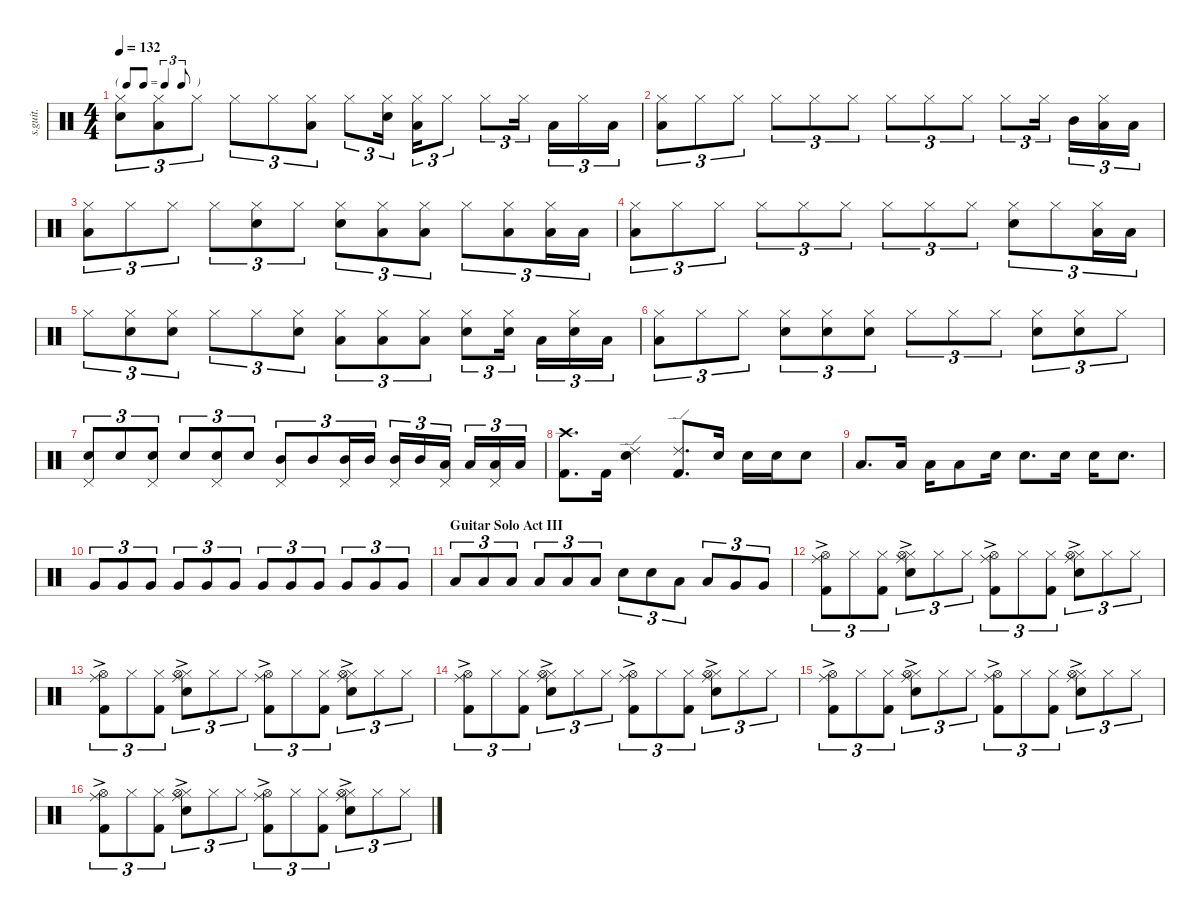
\defaultSystemsLayout 4
\hideDynamics
\bracketExtendMode nobrackets
\track ("Nick Mason | Ludwig Drumkit | Drums" "s.guit.") {instrument percussion}
\staff {score}
\articulation defaults
\ts (4 4)
\tf triplet8th
\tempo 132
\clef neutral
\ks c
("Hi-Hat (closed)" "Snare (hit) 2").8{tu (3 2) dy f} ("Hi-Hat (closed)" "Low Floor Tom (hit)").8{tu (3 2)} "Hi-Hat (closed)".8{tu (3 2)} "Hi-Hat (closed)".8{tu (3 2)} "Hi-Hat (closed)".8{tu (3 2)} ("Hi-Hat (closed)" "Low Floor Tom (hit)").8{tu (3 2)} "Hi-Hat (closed)".8{tu (3 2)} ("Hi-Hat (closed)" "Snare (hit) 2").16{tu (3 2)} ("Hi-Hat (closed)" "Low Floor Tom (hit)").16{tu (3 2)} "Hi-Hat (closed)".8{tu (3 2)} "Hi-Hat (closed)".8{tu (3 2)} "Hi-Hat (closed)".16{tu (3 2)} "Low Floor Tom (hit)".16{tu (3 2)} "Hi-Hat (closed)".16{tu (3 2)} "Low Floor Tom (hit)".16{tu (3 2)} |
("Hi-Hat (closed)" "Low Floor Tom (hit)").8{tu (3 2)} "Hi-Hat (closed)".8{tu (3 2)} "Hi-Hat (closed)".8{tu (3 2)} "Hi-Hat (closed)".8{tu (3 2)} "Hi-Hat (closed)".8{tu (3 2)} "Hi-Hat (closed)".8{tu (3 2)} "Hi-Hat (closed)".8{tu (3 2)} "Hi-Hat (closed)".8{tu (3 2)} "Hi-Hat (closed)".8{tu (3 2)} "Hi-Hat (closed)".8{tu (3 2)} "Hi-Hat (closed)".16{tu (3 2)} "Mid Tom (hit)".16{tu (3 2)} ("Hi-Hat (closed)" "Low Floor Tom (hit)").16{tu (3 2)} "Low Floor Tom (hit)".16{tu (3 2)} |
("Hi-Hat (closed)" "Low Floor Tom (hit)").8{tu (3 2)} "Hi-Hat (closed)".8{tu (3 2)} "Hi-Hat (closed)".8{tu (3 2)} "Hi-Hat (closed)".8{tu (3 2)} ("Hi-Hat (closed)" "Snare (hit) 2").8{tu (3 2)} "Hi-Hat (closed)".8{tu (3 2)} ("Hi-Hat (closed)" "Snare (hit) 2").8{tu (3 2)} ("Hi-Hat (closed)" "Low Floor Tom (hit)").8{tu (3 2)} ("Hi-Hat (closed)" "Low Floor Tom (hit)").8{tu (3 2)} "Hi-Hat (closed)".8{tu (3 2)} ("Hi-Hat (closed)" "Low Floor Tom (hit)").8{tu (3 2)} ("Hi-Hat (closed)" "Low Floor Tom (hit)").16{tu (3 2)} "Low Floor Tom (hit)".16{tu (3 2)} |
("Hi-Hat (closed)" "Low Floor Tom (hit)").8{tu (3 2)} "Hi-Hat (closed)".8{tu (3 2)} "Hi-Hat (closed)".8{tu (3 2)} "Hi-Hat (closed)".8{tu (3 2)} "Hi-Hat (closed)".8{tu (3 2)} "Hi-Hat (closed)".8{tu (3 2)} "Hi-Hat (closed)".8{tu (3 2)} "Hi-Hat (closed)".8{tu (3 2)} "Hi-Hat (closed)".8{tu (3 2)} ("Hi-Hat (closed)" "Snare (hit) 2").8{tu (3 2)} "Hi-Hat (closed)".8{tu (3 2)} ("Hi-Hat (closed)" "Low Floor Tom (hit)").16{tu (3 2)} "Low Floor Tom (hit)".16{tu (3 2)} |
"Hi-Hat (closed)".8{tu (3 2)} ("Hi-Hat (closed)" "Snare (hit) 2").8{tu (3 2)} ("Hi-Hat (closed)" "Snare (hit) 2").8{tu (3 2)} "Hi-Hat (closed)".8{tu (3 2)} "Hi-Hat (closed)".8{tu (3 2)} ("Hi-Hat (closed)" "Snare (hit) 2").8{tu (3 2)} ("Hi-Hat (closed)" "Low Floor Tom (hit)").8{tu (3 2)} ("Hi-Hat (closed)" "Low Floor Tom (hit)").8{tu (3 2)} ("Hi-Hat (closed)" "Low Floor Tom (hit)").8{tu (3 2)} ("Hi-Hat (closed)" "Snare (hit) 2").8{tu (3 2)} ("Hi-Hat (closed)" "Snare (hit) 2").16{tu (3 2)} "Low Floor Tom (hit)".16{tu (3 2)} ("Hi-Hat (closed)" "Snare (hit) 2").16{tu (3 2)} "Low Floor Tom (hit)".16{tu (3 2)} |
("Hi-Hat (closed)" "Low Floor Tom (hit)").8{tu (3 2)} "Hi-Hat (closed)".8{tu (3 2)} "Hi-Hat (closed)".8{tu (3 2)} ("Hi-Hat (closed)" "Snare (hit) 2").8{tu (3 2)} ("Hi-Hat (closed)" "Snare (hit) 2").8{tu (3 2)} ("Hi-Hat (closed)" "Snare (hit) 2").8{tu (3 2)} "Hi-Hat (closed)".8{tu (3 2)} "Hi-Hat (closed)".8{tu (3 2)} "Hi-Hat (closed)".8{tu (3 2)} ("Hi-Hat (closed)" "Snare (hit) 2").8{tu (3 2)} ("Hi-Hat (closed)" "Snare (hit) 2").8{tu (3 2)} "Hi-Hat (closed)".8{tu (3 2)} |
("Snare (hit) 2" "Pedal Hi-Hat (hit)").8{tu (3 2)} "Snare (hit) 2".8{tu (3 2)} ("Snare (hit) 2" "Pedal Hi-Hat (hit)").8{tu (3 2)} "Snare (hit) 2".8{tu (3 2)} ("Snare (hit) 2" "Pedal Hi-Hat (hit)").8{tu (3 2)} "Snare (hit) 2".8{tu (3 2)} ("Mid Tom (hit)" "Pedal Hi-Hat (hit)").8{tu (3 2)} "Mid Tom (hit)".8{tu (3 2)} ("Mid Tom (hit)" "Pedal Hi-Hat (hit)").16{tu (3 2)} "Mid Tom (hit)".16{tu (3 2)} ("Mid Tom (hit)" "Pedal Hi-Hat (hit)").16{tu (3 2)} "Mid Tom (hit)".16{tu (3 2)} ("Low Floor Tom (hit)" "Pedal Hi-Hat (hit)").16{tu (3 2)} "Low Floor Tom (hit)".16{tu (3 2)} ("Low Floor Tom (hit)" "Pedal Hi-Hat (hit)").16{tu (3 2)} "Low Floor Tom (hit)".16{tu (3 2)} |
("Crash high (hit)" "Kick (hit) 2").8{d} "Kick (hit) 2".16 ("Ride (edge) 2" "Snare (hit) 2").4 ("Ride (edge) 2" "Kick (hit) 2").8{d} "Snare (hit) 2".16 "Snare (hit) 2".16 "Snare (hit) 2".16 "Snare (hit) 2".8 |
"Low Floor Tom (hit)".8{d} "Low Floor Tom (hit)".16 "Low Floor Tom (hit)".16 "Low Floor Tom (hit)".8 "Snare (hit) 2".16 "Snare (hit) 2".8{d} "Snare (hit) 2".16 "Snare (hit) 2".16 "Snare (hit) 2".8{d} |
"Very Low Tom (hit)".8{tu (3 2)} "Very Low Tom (hit)".8{tu (3 2)} "Very Low Tom (hit)".8{tu (3 2)} "Very Low Tom (hit)".8{tu (3 2)} "Very Low Tom (hit)".8{tu (3 2)} "Very Low Tom (hit)".8{tu (3 2)} "Very Low Tom (hit)".8{tu (3 2)} "Very Low Tom (hit)".8{tu (3 2)} "Very Low Tom (hit)".8{tu (3 2)} "Very Low Tom (hit)".8{tu (3 2)} "Very Low Tom (hit)".8{tu (3 2)} "Very Low Tom (hit)".8{tu (3 2)} |
\section ("" "Guitar Solo Act III")
"Low Floor Tom (hit)".8{tu (3 2)} "Low Floor Tom (hit)".8{tu (3 2)} "Low Floor Tom (hit)".8{tu (3 2)} "Low Floor Tom (hit)".8{tu (3 2)} "Low Floor Tom (hit)".8{tu (3 2)} "Low Floor Tom (hit)".8{tu (3 2)} "Snare (hit) 2".8{tu (3 2)} "Snare (hit) 2".8{tu (3 2)} "Low Tom (hit)".8{tu (3 2)} "Low Tom (hit)".8{tu (3 2)} "Very Low Tom (hit)".8{tu (3 2)} "Very Low Tom (hit)".8{tu (3 2)} |
("Hi-Hat (open)"{ac} "Ride (middle)" "Kick (hit) 2").8{tu (3 2)} "Hi-Hat (closed)".8{tu (3 2) dy mf} ("Hi-Hat (closed)" "Kick (hit) 2").8{tu (3 2)} ("Hi-Hat (closed)"{ac} "Hi-Hat (open)" "Ride (middle)" "Snare (hit) 2").8{tu (3 2) dy f} "Hi-Hat (closed)".8{tu (3 2)} "Hi-Hat (closed)".8{tu (3 2)} ("Hi-Hat (open)"{ac} "Ride (middle)" "Kick (hit) 2").8{tu (3 2)} "Hi-Hat (closed)".8{tu (3 2) dy mf} ("Hi-Hat (closed)" "Kick (hit) 2").8{tu (3 2)} ("Hi-Hat (closed)"{ac} "Hi-Hat (open)" "Ride (middle)" "Snare (hit) 2").8{tu (3 2) dy f} "Hi-Hat (closed)".8{tu (3 2)} "Hi-Hat (closed)".8{tu (3 2)} |
("Hi-Hat (open)"{ac} "Ride (middle)" "Kick (hit) 2").8{tu (3 2)} "Hi-Hat (closed)".8{tu (3 2) dy mf} ("Hi-Hat (closed)" "Kick (hit) 2").8{tu (3 2)} ("Hi-Hat (closed)"{ac} "Hi-Hat (open)" "Ride (middle)" "Snare (hit) 2").8{tu (3 2) dy f} "Hi-Hat (closed)".8{tu (3 2)} "Hi-Hat (closed)".8{tu (3 2)} ("Hi-Hat (open)"{ac} "Ride (middle)" "Kick (hit) 2").8{tu (3 2)} "Hi-Hat (closed)".8{tu (3 2) dy mf} ("Hi-Hat (closed)" "Kick (hit) 2").8{tu (3 2)} ("Hi-Hat (closed)"{ac} "Hi-Hat (open)" "Ride (middle)" "Snare (hit) 2").8{tu (3 2) dy f} "Hi-Hat (closed)".8{tu (3 2)} "Hi-Hat (closed)".8{tu (3 2)} |
("Hi-Hat (open)"{ac} "Ride (middle)" "Kick (hit) 2").8{tu (3 2)} "Hi-Hat (closed)".8{tu (3 2) dy mf} ("Hi-Hat (closed)" "Kick (hit) 2").8{tu (3 2)} ("Hi-Hat (closed)"{ac} "Hi-Hat (open)" "Ride (middle)" "Snare (hit) 2").8{tu (3 2) dy f} "Hi-Hat (closed)".8{tu (3 2)} "Hi-Hat (closed)".8{tu (3 2)} ("Hi-Hat (open)"{ac} "Ride (middle)" "Kick (hit) 2").8{tu (3 2)} "Hi-Hat (closed)".8{tu (3 2) dy mf} ("Hi-Hat (closed)" "Kick (hit) 2").8{tu (3 2)} ("Hi-Hat (closed)"{ac} "Hi-Hat (open)" "Ride (middle)" "Snare (hit) 2").8{tu (3 2) dy f} "Hi-Hat (closed)".8{tu (3 2)} "Hi-Hat (closed)".8{tu (3 2)} |
("Hi-Hat (open)"{ac} "Ride (middle)" "Kick (hit) 2").8{tu (3 2)} "Hi-Hat (closed)".8{tu (3 2) dy mf} ("Hi-Hat (closed)" "Kick (hit) 2").8{tu (3 2)} ("Hi-Hat (closed)"{ac} "Hi-Hat (open)" "Ride (middle)" "Snare (hit) 2").8{tu (3 2) dy f} "Hi-Hat (closed)".8{tu (3 2)} "Hi-Hat (closed)".8{tu (3 2)} ("Hi-Hat (open)"{ac} "Ride (middle)" "Kick (hit) 2").8{tu (3 2)} "Hi-Hat (closed)".8{tu (3 2) dy mf} ("Hi-Hat (closed)" "Kick (hit) 2").8{tu (3 2)} ("Hi-Hat (closed)"{ac} "Hi-Hat (open)" "Ride (middle)" "Snare (hit) 2").8{tu (3 2) dy f} "Hi-Hat (closed)".8{tu (3 2)} "Hi-Hat (closed)".8{tu (3 2)} |
("Hi-Hat (open)"{ac} "Ride (middle)" "Kick (hit) 2").8{tu (3 2)} "Hi-Hat (closed)".8{tu (3 2) dy mf} ("Hi-Hat (closed)" "Kick (hit) 2").8{tu (3 2)} ("Hi-Hat (closed)"{ac} "Hi-Hat (open)" "Ride (middle)" "Snare (hit) 2").8{tu (3 2) dy f} "Hi-Hat (closed)".8{tu (3 2)} "Hi-Hat (closed)".8{tu (3 2)} ("Hi-Hat (open)"{ac} "Ride (middle)" "Kick (hit) 2").8{tu (3 2)} "Hi-Hat (closed)".8{tu (3 2) dy mf} ("Hi-Hat (closed)" "Kick (hit) 2").8{tu (3 2)} ("Hi-Hat (closed)"{ac} "Hi-Hat (open)" "Ride (middle)" "Snare (hit) 2").8{tu (3 2) dy f} "Hi-Hat (closed)".8{tu (3 2)} "Hi-Hat (closed)".8{tu (3 2)}
